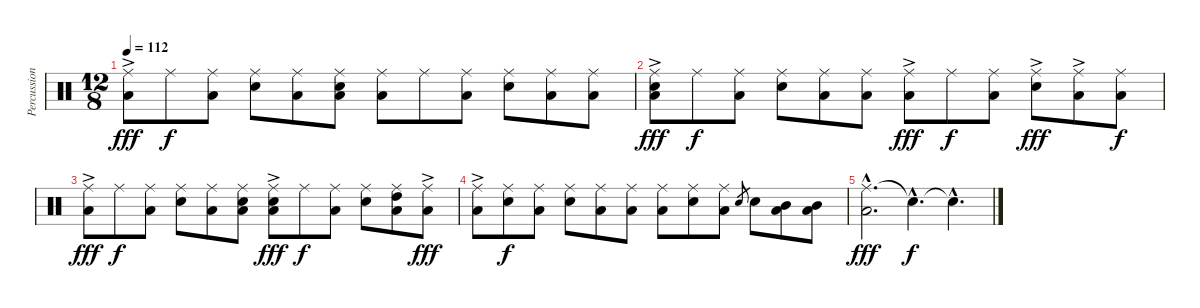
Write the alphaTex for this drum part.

\track ("Percussion" "Percussion") {instrument percussion}
\staff {score}
\articulation defaults
\ts (12 8)
\tempo 112
\clef neutral
\ks c
("Ride (middle)"{ac} "Low Floor Tom (hit)").8{dy fff} "Ride (middle)".8{dy f} ("Ride (middle)" "Low Floor Tom (hit)").8 ("Ride (middle)" "Snare (hit) 2").8 ("Ride (middle)" "Low Floor Tom (hit)").8 ("Ride (middle)" "Snare (hit) 2" "Low Floor Tom (hit)").8 ("Ride (middle)" "Low Floor Tom (hit)").8 "Ride (middle)".8 ("Ride (middle)" "Low Floor Tom (hit)").8 ("Ride (middle)" "Snare (hit) 2").8 ("Ride (middle)" "Low Floor Tom (hit)").8 ("Ride (middle)" "Low Floor Tom (hit)").8 |
("Ride (middle)"{ac} "Snare (hit) 2" "Low Floor Tom (hit)").8{dy fff} "Ride (middle)".8{dy f} ("Ride (middle)" "Low Floor Tom (hit)").8 ("Ride (middle)" "Snare (hit) 2").8 ("Ride (middle)" "Low Floor Tom (hit)").8 ("Ride (middle)" "Low Floor Tom (hit)").8 ("Ride (middle)"{ac} "Low Floor Tom (hit)").8{dy fff} "Ride (middle)".8{dy f} ("Ride (middle)" "Low Floor Tom (hit)").8 ("Ride (middle)"{ac} "Snare (hit) 2").8{dy fff} ("Ride (middle)"{ac} "Low Floor Tom (hit)").8 ("Ride (middle)" "Low Floor Tom (hit)").8{dy f} |
("Ride (middle)"{ac} "Low Floor Tom (hit)").8{dy fff} "Ride (middle)".8{dy f} ("Ride (middle)" "Low Floor Tom (hit)").8 ("Ride (middle)" "Snare (hit) 2").8 ("Ride (middle)" "Low Floor Tom (hit)").8 ("Ride (middle)" "Snare (hit) 2" "Low Floor Tom (hit)").8 ("Ride (middle)"{ac} "Snare (hit) 2" "Low Floor Tom (hit)").8{dy fff} "Ride (middle)".8{dy f} ("Ride (middle)" "Low Floor Tom (hit)").8 ("Ride (middle)" "Snare (hit) 2").8 ("Ride (middle)" "High Tom (hit)" "Low Floor Tom (hit)").8 ("Ride (middle)"{ac} "Low Floor Tom (hit)").8{dy fff} |
("Ride (middle)"{ac} "Low Floor Tom (hit)").8 ("Ride (middle)" "Snare (hit) 2").8{dy f} ("Ride (middle)" "Low Floor Tom (hit)").8 ("Ride (middle)" "Snare (hit) 2").8 ("Ride (middle)" "Low Floor Tom (hit)").8 ("Ride (middle)" "Low Floor Tom (hit)").8 ("Ride (middle)" "Low Floor Tom (hit)").8 ("Ride (middle)" "Snare (hit) 2").8 ("Ride (middle)" "Low Floor Tom (hit)").8 "Snare (hit) 2".8{gr} "Snare (hit) 2".8 ("Mid Tom (hit)" "Low Tom (hit)").8 ("Mid Tom (hit)" "Low Tom (hit)").8 |
("Ride (middle)"{hac} "Low Floor Tom (hit)"{hac}).2{d dy fff} "Snare (hit)"{hac t}.4{d dy f} "Snare (hit)"{hac t}.4{d}
